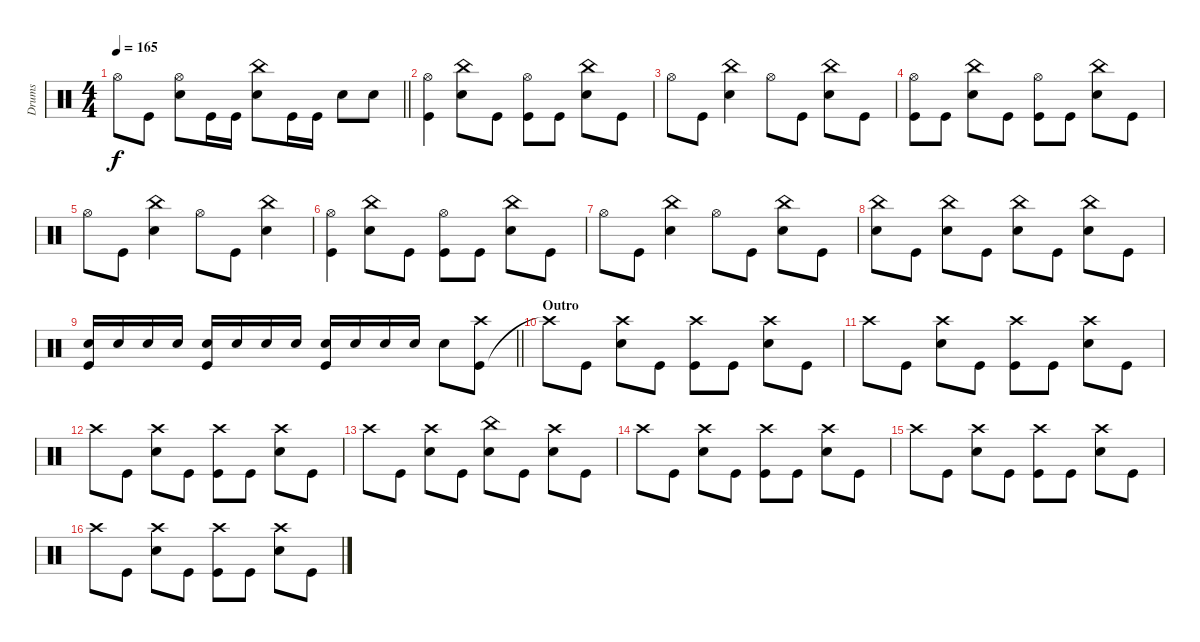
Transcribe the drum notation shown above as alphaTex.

\track ("Drums" "Drums") {instrument percussion}
\staff {score}
\articulation defaults
\ts (4 4)
\tempo 165
\clef neutral
\barLineRight lightlight
\ks c "Hi-Hat (open)".8{dy f} "Kick (hit)".8
("Snare (hit) 2" "Hi-Hat (open)").8 "Kick (hit)".16 "Kick (hit)".16 ("Snare (hit) 2" "China (hit)").8 "Kick (hit)".16 "Kick (hit)".16 "Snare (hit) 2".8 "Snare (hit) 2".8 |
("Kick (hit)" "Hi-Hat (open)").4 ("Snare (hit) 2" "China (hit)").8 "Kick (hit)".8 ("Kick (hit)" "Hi-Hat (open)").8 "Kick (hit)".8 ("Snare (hit) 2" "China (hit)").8 "Kick (hit)".8 |
"Hi-Hat (open)".8 "Kick (hit)".8 ("Snare (hit) 2" "China (hit)").4 "Hi-Hat (open)".8 "Kick (hit)".8 ("Snare (hit) 2" "China (hit)").8 "Kick (hit)".8 |
("Kick (hit)" "Hi-Hat (open)").8 "Kick (hit)".8 ("Snare (hit) 2" "China (hit)").8 "Kick (hit)".8 ("Kick (hit)" "Hi-Hat (open)").8 "Kick (hit)".8 ("Snare (hit) 2" "China (hit)").8 "Kick (hit)".8 |
"Hi-Hat (open)".8 "Kick (hit)".8 ("Snare (hit) 2" "China (hit)").4 "Hi-Hat (open)".8 "Kick (hit)".8 ("Snare (hit) 2" "China (hit)").4 |
("Kick (hit)" "Hi-Hat (open)").4 ("Snare (hit) 2" "China (hit)").8 "Kick (hit)".8 ("Kick (hit)" "Hi-Hat (open)").8 "Kick (hit)".8 ("Snare (hit) 2" "China (hit)").8 "Kick (hit)".8 |
"Hi-Hat (open)".8 "Kick (hit)".8 ("Snare (hit) 2" "China (hit)").4 "Hi-Hat (open)".8 "Kick (hit)".8 ("Snare (hit) 2" "China (hit)").8 "Kick (hit)".8 |
("China (hit)" "Snare (hit) 2").8 "Kick (hit)".8 ("Snare (hit) 2" "China (hit)").8 "Kick (hit)".8 ("China (hit)" "Snare (hit) 2").8 "Kick (hit)".8 ("Snare (hit) 2" "China (hit)").8 "Kick (hit)".8 |
\barLineRight lightlight
("Snare (hit) 2" "Kick (hit)").16 "Snare (hit) 2".16 "Snare (hit) 2".16 "Snare (hit) 2".16 ("Snare (hit) 2" "Kick (hit)").16 "Snare (hit) 2".16 "Snare (hit) 2".16 "Snare (hit) 2".16 ("Snare (hit) 2" "Kick (hit)").16 "Snare (hit) 2".16 "Snare (hit) 2".16 "Snare (hit) 2".16 "Snare (hit) 2".8 ("Kick (hit)" "Crash high (hit)").8 |
\section ("" "Outro")
"Crash high (hit)"{t}.8 "Kick (hit)".8 ("Snare (hit) 2" "Crash high (hit)").8 "Kick (hit)".8 ("Kick (hit)" "Crash high (hit)").8 "Kick (hit)".8 ("Crash high (hit)" "Snare (hit) 2").8 "Kick (hit)".8 |
"Crash high (hit)".8 "Kick (hit)".8 ("Snare (hit) 2" "Crash high (hit)").8 "Kick (hit)".8 ("Kick (hit)" "Crash high (hit)").8 "Kick (hit)".8 ("Snare (hit) 2" "Crash high (hit)").8 "Kick (hit)".8 |
"Crash high (hit)".8 "Kick (hit)".8 ("Snare (hit) 2" "Crash high (hit)").8 "Kick (hit)".8 ("Kick (hit)" "Crash high (hit)").8 "Kick (hit)".8 ("Snare (hit) 2" "Crash high (hit)").8 "Kick (hit)".8 |
"Crash high (hit)".8 "Kick (hit)".8 ("Snare (hit) 2" "Crash high (hit)").8 "Kick (hit)".8 ("Snare (hit) 2" "China (hit)").8 "Kick (hit)".8 ("Snare (hit) 2" "Crash high (hit)").8 "Kick (hit)".8 |
"Crash high (hit)".8 "Kick (hit)".8 ("Snare (hit) 2" "Crash high (hit)").8 "Kick (hit)".8 ("Kick (hit)" "Crash high (hit)").8 "Kick (hit)".8 ("Crash high (hit)" "Snare (hit) 2").8 "Kick (hit)".8 |
"Crash high (hit)".8 "Kick (hit)".8 ("Snare (hit) 2" "Crash high (hit)").8 "Kick (hit)".8 ("Kick (hit)" "Crash high (hit)").8 "Kick (hit)".8 ("Snare (hit) 2" "Crash high (hit)").8 "Kick (hit)".8 |
"Crash high (hit)".8 "Kick (hit)".8 ("Snare (hit) 2" "Crash high (hit)").8 "Kick (hit)".8 ("Kick (hit)" "Crash high (hit)").8 "Kick (hit)".8 ("Snare (hit) 2" "Crash high (hit)").8 "Kick (hit)".8
